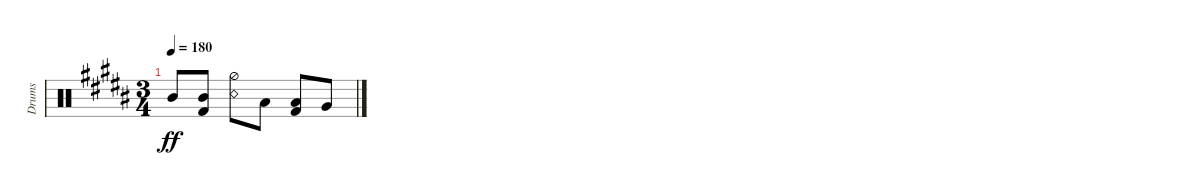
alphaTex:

\bracketExtendMode groupsimilarinstruments
\otherSystemsTrackNameOrientation horizontal
\track ("Drumkit" "Drums") {instrument percussion}
\staff {score}
\articulation defaults
\ts (3 4)
\tempo 180
\clef neutral
\ks b "Mid Tom (hit)"{acc bb}.8{dy ff beam Up}
("Kick (hit) 2"{acc bb} "Mid Tom (hit)"{acc bb}).8{beam Up} ("Snare (rim shot)"{acc bb} "Hi-Hat (half)"{acc bb}).8{beam Down} "Low Tom (hit)"{acc bb}.8{beam Down} ("Kick (hit) 2"{acc bb} "Low Tom (hit)"{acc bb}).8{beam Up} "Very Low Tom (hit)"{acc bb}.8{beam Up}
